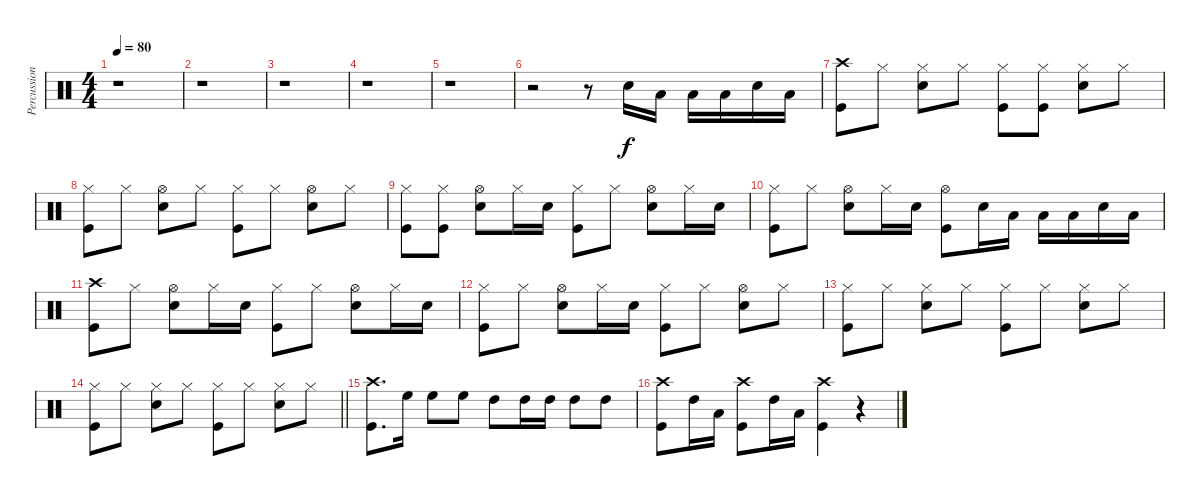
\track ("Percussion" "Percussion") {instrument percussion}
\staff {score}
\articulation defaults
\ts (4 4)
\tempo 80
\clef neutral
\ks c
r.1{dy f} |
r.1 |
r.1 |
r.1 |
r.1 |
r.2 r.8 "Snare (hit) 2".16 "Low Tom (hit)".16 "Low Tom (hit)".16 "Low Tom (hit)".16 "Snare (hit) 2".16 "Low Tom (hit)".16 |
("Crash high (hit)" "Kick (hit)").8 "Hi-Hat (closed)".8 ("Hi-Hat (closed)" "Snare (hit) 2").8 "Hi-Hat (closed)".8 ("Hi-Hat (closed)" "Kick (hit)").8 ("Hi-Hat (closed)" "Kick (hit)").8 ("Hi-Hat (closed)" "Snare (hit) 2").8 "Hi-Hat (closed)".8 |
("Hi-Hat (closed)" "Kick (hit)").8 "Hi-Hat (closed)".8 ("Hi-Hat (open)" "Snare (hit) 2").8 "Hi-Hat (closed)".8 ("Hi-Hat (closed)" "Kick (hit)").8 "Hi-Hat (closed)".8 ("Hi-Hat (open)" "Snare (hit) 2").8 "Hi-Hat (closed)".8 |
("Hi-Hat (closed)" "Kick (hit)").8 ("Hi-Hat (closed)" "Kick (hit)").8 ("Hi-Hat (open)" "Snare (hit) 2").8 "Hi-Hat (closed)".16 "Snare (hit) 2".16 ("Hi-Hat (closed)" "Kick (hit)").8 "Hi-Hat (closed)".8 ("Hi-Hat (open)" "Snare (hit) 2").8 "Hi-Hat (closed)".16 "Snare (hit) 2".16 |
("Hi-Hat (closed)" "Kick (hit)").8 "Hi-Hat (closed)".8 ("Hi-Hat (open)" "Snare (hit) 2").8 "Hi-Hat (closed)".16 "Snare (hit) 2".16 ("Hi-Hat (open)" "Kick (hit)").8 "Snare (hit) 2".16 "Low Tom (hit)".16 "Low Tom (hit)".16 "Low Tom (hit)".16 "Snare (hit) 2".16 "Low Tom (hit)".16 |
("Crash high (hit)" "Kick (hit)").8 "Hi-Hat (closed)".8 ("Hi-Hat (open)" "Snare (hit) 2").8 "Hi-Hat (closed)".16 "Snare (hit) 2".16 ("Hi-Hat (closed)" "Kick (hit)").8 "Hi-Hat (closed)".8 ("Hi-Hat (open)" "Snare (hit) 2").8 "Hi-Hat (closed)".16 "Snare (hit) 2".16 |
("Hi-Hat (closed)" "Kick (hit)").8 "Hi-Hat (closed)".8 ("Hi-Hat (open)" "Snare (hit) 2").8 "Hi-Hat (closed)".16 "Snare (hit) 2".16 ("Hi-Hat (closed)" "Kick (hit)").8 "Hi-Hat (closed)".8 ("Hi-Hat (open)" "Snare (hit) 2").8 "Hi-Hat (closed)".8 |
("Hi-Hat (closed)" "Kick (hit)").8 "Hi-Hat (closed)".8 ("Hi-Hat (closed)" "Snare (hit) 2").8 "Hi-Hat (closed)".8 ("Hi-Hat (closed)" "Kick (hit)").8 "Hi-Hat (closed)".8 ("Hi-Hat (closed)" "Snare (hit) 2").8 "Hi-Hat (closed)".8 |
\barLineRight lightlight
("Hi-Hat (closed)" "Kick (hit)").8 "Hi-Hat (closed)".8 ("Hi-Hat (closed)" "Snare (hit) 2").8 "Hi-Hat (closed)".8 ("Hi-Hat (closed)" "Kick (hit)").8 "Hi-Hat (closed)".8 ("Hi-Hat (closed)" "Snare (hit) 2").8 "Hi-Hat (closed)".8 |
("Crash high (hit)" "Kick (hit)").8{d} "High Floor Tom (hit)".16 "High Floor Tom (hit)".8 "High Floor Tom (hit)".8 "High Tom (hit)".8 "High Tom (hit)".16 "High Tom (hit)".16 "High Tom (hit)".8 "High Tom (hit)".8 |
("Crash high (hit)" "Kick (hit)").8 "High Tom (hit)".16 "Low Tom (hit)".16 ("Crash high (hit)" "Kick (hit)").8 "High Tom (hit)".16 "Low Tom (hit)".16 ("Crash high (hit)" "Kick (hit)").4 r.4
